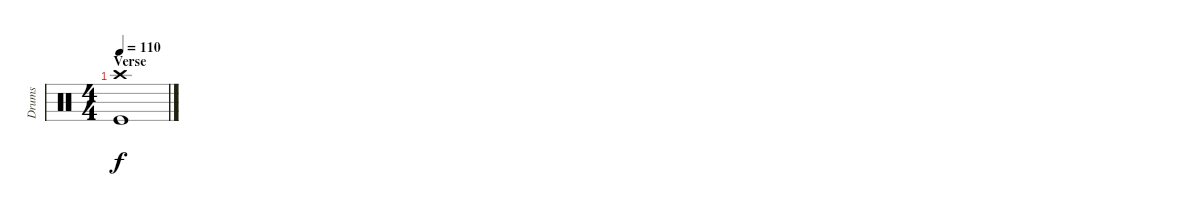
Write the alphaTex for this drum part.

\track ("Drums" "Drums") {instrument percussion}
\staff {score}
\articulation defaults
\ts (4 4)
\section ("" "Verse")
\tempo 110
\clef neutral
\ks c
("Crash high (hit)" "Kick (hit)").1{dy f}
